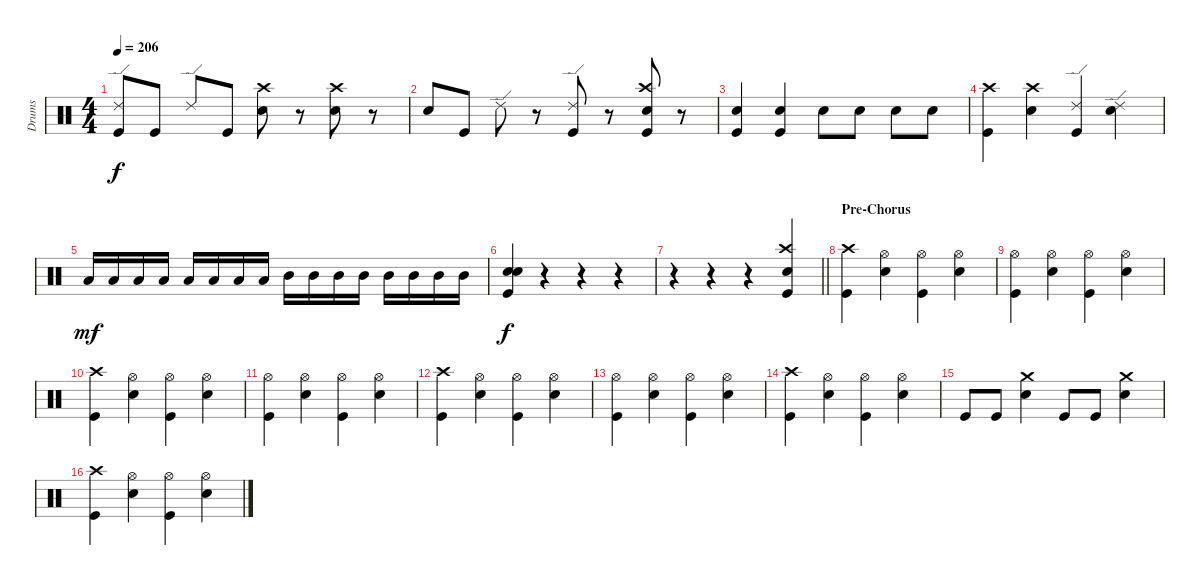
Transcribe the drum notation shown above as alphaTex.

\track ("Drums" "Drums") {instrument percussion}
\staff {score}
\articulation defaults
\ts (4 4)
\tempo 206
\clef neutral
\ks c
("Ride (edge) 2" "Kick (hit)").8{dy f} "Kick (hit)".8 "Ride (edge) 2".8 "Kick (hit)".8 ("Crash high (hit)" "Electric Snare (hit)").8 r.8 ("Crash high (hit)" "Electric Snare (hit)").8 r.8 |
"Electric Snare (hit)".8 "Kick (hit)".8 "Ride (edge) 2".8 r.8 ("Ride (edge) 2" "Kick (hit)").8 r.8 ("Crash high (hit)" "Electric Snare (hit)" "Kick (hit)").8 r.8 |
("Electric Snare (hit)" "Kick (hit)").4 ("Electric Snare (hit)" "Kick (hit)").4 "Electric Snare (hit)".8 "Electric Snare (hit)".8 "Electric Snare (hit)".8 "Electric Snare (hit)".8 |
("Crash high (hit)" "Kick (hit)").4 ("Crash high (hit)" "Electric Snare (hit)").4 ("Ride (edge) 2" "Kick (hit)").4 ("Ride (edge) 2" "Electric Snare (hit)").4 |
"Low Tom (hit)".16{dy mf} "Low Tom (hit)".16 "Low Tom (hit)".16 "Low Tom (hit)".16 "Low Tom (hit)".16 "Low Tom (hit)".16 "Low Tom (hit)".16 "Low Tom (hit)".16 "Mid Tom (hit)".16 "Mid Tom (hit)".16 "Mid Tom (hit)".16 "Mid Tom (hit)".16 "Mid Tom (hit)".16 "Mid Tom (hit)".16 "Mid Tom (hit)".16 "Mid Tom (hit)".16 |
("Electric Snare (hit)" "Electric Snare (hit)" "Kick (hit)").4{dy f} r.4 r.4 r.4 |
\barLineRight lightlight
r.4 r.4 r.4 ("Crash high (hit)" "Electric Snare (hit)" "Kick (hit)").4 |
\section ("" "Pre-Chorus")
("Crash high (hit)" "Kick (hit)").4 ("Hi-Hat (open)" "Electric Snare (hit)").4 ("Hi-Hat (open)" "Kick (hit)").4 ("Hi-Hat (open)" "Electric Snare (hit)").4 |
("Hi-Hat (open)" "Kick (hit)").4 ("Hi-Hat (open)" "Electric Snare (hit)").4 ("Hi-Hat (open)" "Kick (hit)").4 ("Hi-Hat (open)" "Electric Snare (hit)").4 |
("Crash high (hit)" "Kick (hit)").4 ("Hi-Hat (open)" "Electric Snare (hit)").4 ("Hi-Hat (open)" "Kick (hit)").4 ("Hi-Hat (open)" "Electric Snare (hit)").4 |
("Hi-Hat (open)" "Kick (hit)").4 ("Hi-Hat (open)" "Electric Snare (hit)").4 ("Hi-Hat (open)" "Kick (hit)").4 ("Hi-Hat (open)" "Electric Snare (hit)").4 |
("Crash high (hit)" "Kick (hit)").4 ("Hi-Hat (open)" "Electric Snare (hit)").4 ("Hi-Hat (open)" "Kick (hit)").4 ("Hi-Hat (open)" "Electric Snare (hit)").4 |
("Hi-Hat (open)" "Kick (hit)").4 ("Hi-Hat (open)" "Electric Snare (hit)").4 ("Hi-Hat (open)" "Kick (hit)").4 ("Hi-Hat (open)" "Electric Snare (hit)").4 |
("Crash high (hit)" "Kick (hit)").4 ("Hi-Hat (open)" "Electric Snare (hit)").4 ("Hi-Hat (open)" "Kick (hit)").4 ("Hi-Hat (open)" "Electric Snare (hit)").4 |
"Kick (hit)".8 "Kick (hit)".8 ("Crash medium (hit)" "Electric Snare (hit)").4 "Kick (hit)".8 "Kick (hit)".8 ("Crash medium (hit)" "Electric Snare (hit)").4 |
("Crash high (hit)" "Kick (hit)").4 ("Hi-Hat (open)" "Electric Snare (hit)").4 ("Hi-Hat (open)" "Kick (hit)").4 ("Hi-Hat (open)" "Electric Snare (hit)").4
